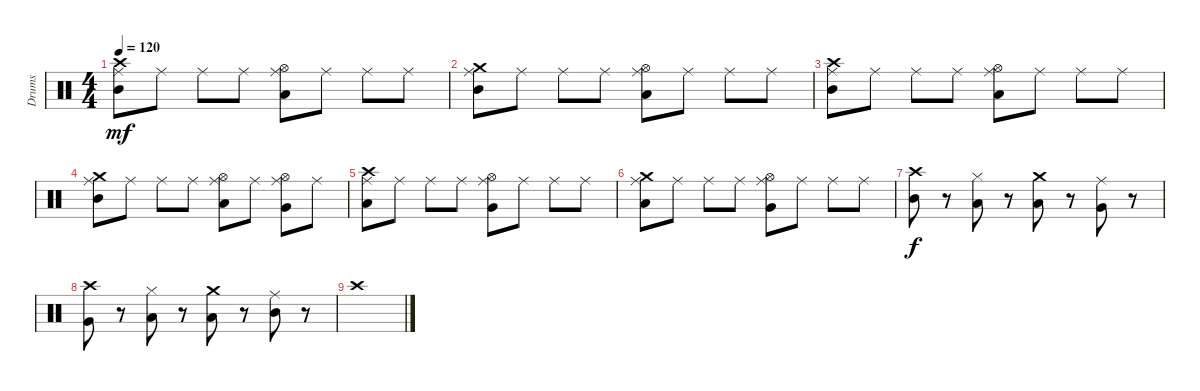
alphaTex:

\track ("Drums" "Drums") {instrument percussion}
\staff {score}
\articulation defaults
\ts (4 4)
\tempo 120
\clef neutral
\ks c
("Crash high (hit)" "Ride (middle)" "Mid Tom (hit)").8{dy mf} "Ride (middle)".8 "Ride (middle)".8 "Ride (middle)".8 ("Hi-Hat (open)" "Ride (middle)" "Low Tom (hit)").8 "Ride (middle)".8 "Ride (middle)".8 "Ride (middle)".8 |
("Crash medium (hit)" "Ride (middle)" "Mid Tom (hit)").8 "Ride (middle)".8 "Ride (middle)".8 "Ride (middle)".8 ("Hi-Hat (open)" "Ride (middle)" "Low Tom (hit)").8 "Ride (middle)".8 "Ride (middle)".8 "Ride (middle)".8 |
("Crash high (hit)" "Ride (middle)" "Mid Tom (hit)").8 "Ride (middle)".8 "Ride (middle)".8 "Ride (middle)".8 ("Hi-Hat (open)" "Ride (middle)" "Low Tom (hit)").8 "Ride (middle)".8 "Ride (middle)".8 "Ride (middle)".8 |
("Crash medium (hit)" "Ride (middle)" "Mid Tom (hit)").8 "Ride (middle)".8 "Ride (middle)".8 "Ride (middle)".8 ("Hi-Hat (open)" "Ride (middle)" "Low Tom (hit)").8 "Ride (middle)".8 ("Hi-Hat (open)" "Ride (middle)" "Very Low Tom (hit)").8 "Ride (middle)".8 |
("Crash high (hit)" "Ride (middle)" "Low Tom (hit)").8 "Ride (middle)".8 "Ride (middle)".8 "Ride (middle)".8 ("Hi-Hat (open)" "Ride (middle)" "Very Low Tom (hit)").8 "Ride (middle)".8 "Ride (middle)".8 "Ride (middle)".8 |
("Crash medium (hit)" "Ride (middle)" "Low Tom (hit)").8 "Ride (middle)".8 "Ride (middle)".8 "Ride (middle)".8 ("Hi-Hat (open)" "Ride (middle)" "Very Low Tom (hit)").8 "Ride (middle)".8 "Ride (middle)".8 "Ride (middle)".8 |
("Crash high (hit)" "Mid Tom (hit)").8{dy f} r.8 ("Hi-Hat (closed)" "Low Tom (hit)").8 r.8 ("Crash medium (hit)" "Low Tom (hit)").8 r.8 ("Ride (middle)" "Very Low Tom (hit)").8 r.8 |
("Crash high (hit)" "Very Low Tom (hit)").8 r.8 ("Hi-Hat (closed)" "Low Tom (hit)").8 r.8 ("Crash medium (hit)" "Low Tom (hit)").8 r.8 ("Ride (middle)" "Mid Tom (hit)").8 r.8 |
"Crash high (hit)".1
